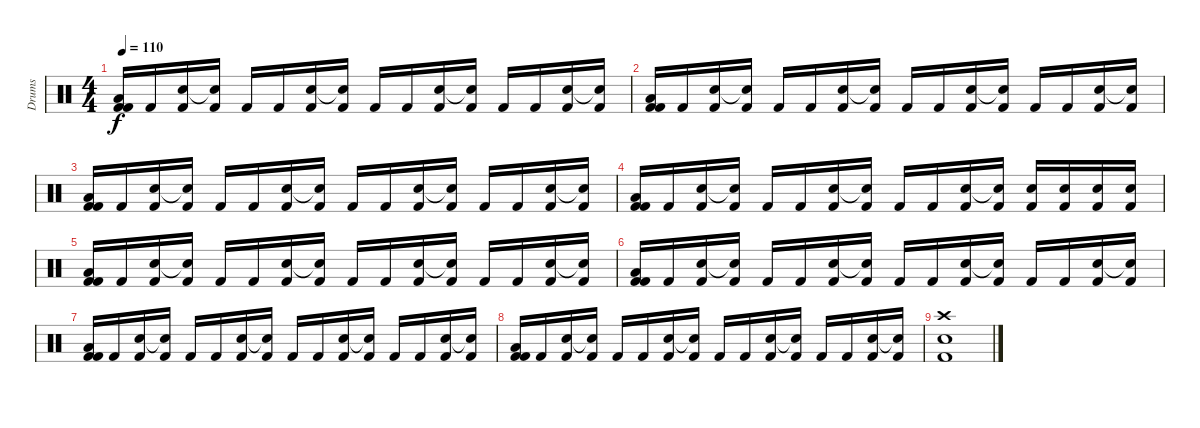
\track ("Drums" "Drums") {instrument percussion}
\staff {score}
\articulation defaults
\ts (4 4)
\tempo 110
\clef neutral
\ks c
("Kick (hit) 2" "Low Floor Tom (hit)" "Kick (hit) 2").16{dy f} "Kick (hit) 2".16 ("Kick (hit) 2" "Electric Snare (hit)").16 ("Kick (hit) 2" "Snare (hit)"{t}).16 "Kick (hit) 2".16 "Kick (hit) 2".16 ("Kick (hit) 2" "Electric Snare (hit)").16 ("Kick (hit) 2" "Snare (hit)"{t}).16 "Kick (hit) 2".16 "Kick (hit) 2".16 ("Kick (hit) 2" "Electric Snare (hit)").16 ("Kick (hit) 2" "Snare (hit)"{t}).16 "Kick (hit) 2".16 "Kick (hit) 2".16 ("Kick (hit) 2" "Electric Snare (hit)").16 ("Kick (hit) 2" "Snare (hit)"{t}).16 |
("Kick (hit) 2" "Low Floor Tom (hit)" "Kick (hit) 2").16 "Kick (hit) 2".16 ("Kick (hit) 2" "Electric Snare (hit)").16 ("Kick (hit) 2" "Snare (hit)"{t}).16 "Kick (hit) 2".16 "Kick (hit) 2".16 ("Kick (hit) 2" "Electric Snare (hit)").16 ("Kick (hit) 2" "Snare (hit)"{t}).16 "Kick (hit) 2".16 "Kick (hit) 2".16 ("Kick (hit) 2" "Electric Snare (hit)").16 ("Kick (hit) 2" "Snare (hit)"{t}).16 "Kick (hit) 2".16 "Kick (hit) 2".16 ("Kick (hit) 2" "Electric Snare (hit)").16 ("Kick (hit) 2" "Electric Snare (hit)"{t}).16 |
("Kick (hit) 2" "Low Floor Tom (hit)" "Kick (hit) 2").16 "Kick (hit) 2".16 ("Kick (hit) 2" "Electric Snare (hit)").16 ("Kick (hit) 2" "Snare (hit)"{t}).16 "Kick (hit) 2".16 "Kick (hit) 2".16 ("Kick (hit) 2" "Electric Snare (hit)").16 ("Kick (hit) 2" "Snare (hit)"{t}).16 "Kick (hit) 2".16 "Kick (hit) 2".16 ("Kick (hit) 2" "Electric Snare (hit)").16 ("Kick (hit) 2" "Snare (hit)"{t}).16 "Kick (hit) 2".16 "Kick (hit) 2".16 ("Kick (hit) 2" "Electric Snare (hit)").16 ("Kick (hit) 2" "Snare (hit)"{t}).16 |
("Kick (hit) 2" "Low Floor Tom (hit)" "Kick (hit) 2").16 "Kick (hit) 2".16 ("Kick (hit) 2" "Electric Snare (hit)").16 ("Kick (hit) 2" "Snare (hit)"{t}).16 "Kick (hit) 2".16 "Kick (hit) 2".16 ("Kick (hit) 2" "Electric Snare (hit)").16 ("Kick (hit) 2" "Snare (hit)"{t}).16 "Kick (hit) 2".16 "Kick (hit) 2".16 ("Kick (hit) 2" "Electric Snare (hit)").16 ("Kick (hit) 2" "Snare (hit)"{t}).16 ("Kick (hit) 2" "Electric Snare (hit)").16 ("Kick (hit) 2" "Electric Snare (hit)").16 ("Kick (hit) 2" "Electric Snare (hit)").16 ("Kick (hit) 2" "Electric Snare (hit)").16 |
("Kick (hit) 2" "Low Floor Tom (hit)" "Kick (hit) 2").16 "Kick (hit) 2".16 ("Kick (hit) 2" "Electric Snare (hit)").16 ("Kick (hit) 2" "Snare (hit)"{t}).16 "Kick (hit) 2".16 "Kick (hit) 2".16 ("Kick (hit) 2" "Electric Snare (hit)").16 ("Kick (hit) 2" "Snare (hit)"{t}).16 "Kick (hit) 2".16 "Kick (hit) 2".16 ("Kick (hit) 2" "Electric Snare (hit)").16 ("Kick (hit) 2" "Snare (hit)"{t}).16 "Kick (hit) 2".16 "Kick (hit) 2".16 ("Kick (hit) 2" "Electric Snare (hit)").16 ("Kick (hit) 2" "Snare (hit)"{t}).16 |
("Kick (hit) 2" "Low Floor Tom (hit)" "Kick (hit) 2").16 "Kick (hit) 2".16 ("Kick (hit) 2" "Electric Snare (hit)").16 ("Kick (hit) 2" "Snare (hit)"{t}).16 "Kick (hit) 2".16 "Kick (hit) 2".16 ("Kick (hit) 2" "Electric Snare (hit)").16 ("Kick (hit) 2" "Snare (hit)"{t}).16 "Kick (hit) 2".16 "Kick (hit) 2".16 ("Kick (hit) 2" "Electric Snare (hit)").16 ("Kick (hit) 2" "Snare (hit)"{t}).16 "Kick (hit) 2".16 "Kick (hit) 2".16 ("Kick (hit) 2" "Electric Snare (hit)").16 ("Kick (hit) 2" "Electric Snare (hit)"{t}).16 |
("Kick (hit) 2" "Low Floor Tom (hit)" "Kick (hit) 2").16 "Kick (hit) 2".16 ("Kick (hit) 2" "Electric Snare (hit)").16 ("Kick (hit) 2" "Snare (hit)"{t}).16 "Kick (hit) 2".16 "Kick (hit) 2".16 ("Kick (hit) 2" "Electric Snare (hit)").16 ("Kick (hit) 2" "Snare (hit)"{t}).16 "Kick (hit) 2".16 "Kick (hit) 2".16 ("Kick (hit) 2" "Electric Snare (hit)").16 ("Kick (hit) 2" "Snare (hit)"{t}).16 "Kick (hit) 2".16 "Kick (hit) 2".16 ("Kick (hit) 2" "Electric Snare (hit)").16 ("Kick (hit) 2" "Snare (hit)"{t}).16 |
("Kick (hit) 2" "Low Floor Tom (hit)" "Kick (hit) 2").16 "Kick (hit) 2".16 ("Kick (hit) 2" "Electric Snare (hit)").16 ("Kick (hit) 2" "Snare (hit)"{t}).16 "Kick (hit) 2".16 "Kick (hit) 2".16 ("Kick (hit) 2" "Electric Snare (hit)").16 ("Kick (hit) 2" "Snare (hit)"{t}).16 "Kick (hit) 2".16 "Kick (hit) 2".16 ("Kick (hit) 2" "Electric Snare (hit)").16 ("Kick (hit) 2" "Snare (hit)"{t}).16 "Kick (hit) 2".16 "Kick (hit) 2".16 ("Kick (hit) 2" "Electric Snare (hit)").16 ("Kick (hit) 2" "Electric Snare (hit)"{t}).16 |
("Crash high (hit)" "Kick (hit) 2" "Electric Snare (hit)").1
